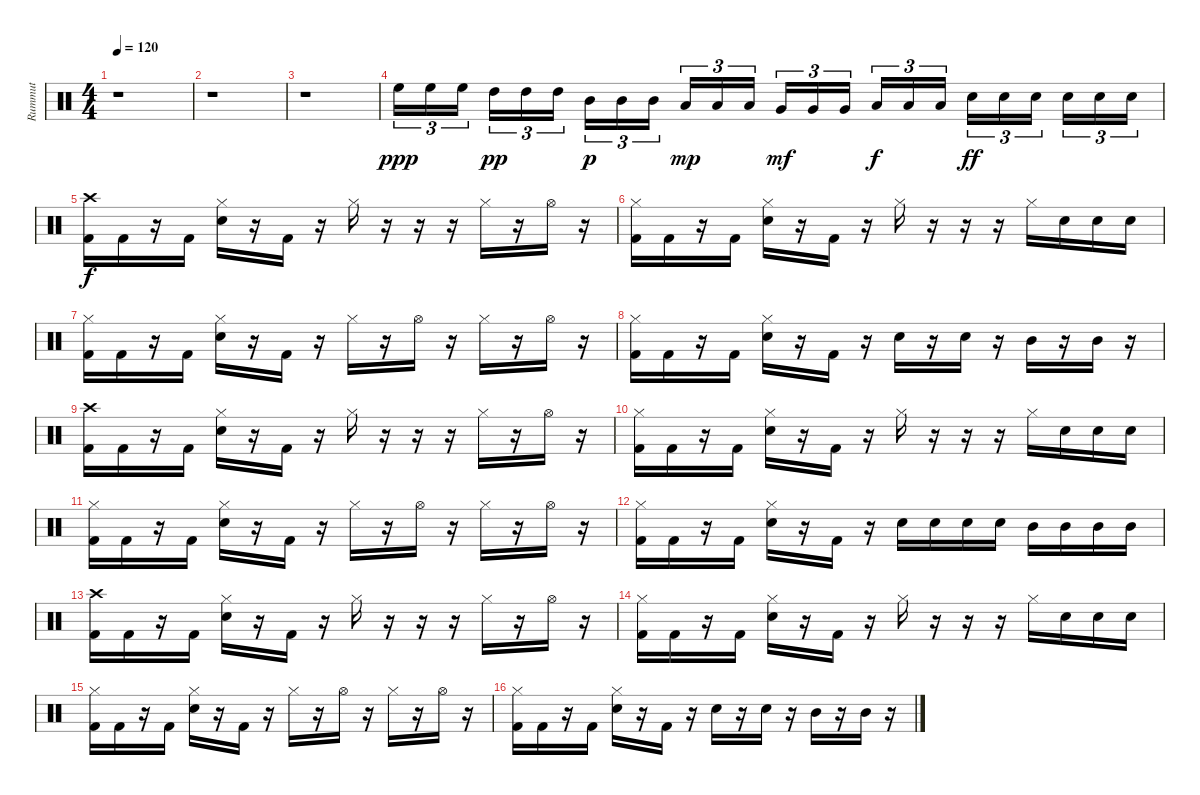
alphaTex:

\track ("Rummut" "Rummut") {instrument percussion}
\staff {score}
\articulation defaults
\ts (4 4)
\tempo 120
\clef neutral
\ks c
r.1{dy f} |
r.1 |
r.1 |
"High Floor Tom (hit)".16{tu (3 2) dy ppp} "High Floor Tom (hit)".16{tu (3 2)} "High Floor Tom (hit)".16{tu (3 2)} "High Tom (hit)".16{tu (3 2) dy pp} "High Tom (hit)".16{tu (3 2)} "High Tom (hit)".16{tu (3 2)} "Mid Tom (hit)".16{tu (3 2) dy p} "Mid Tom (hit)".16{tu (3 2)} "Mid Tom (hit)".16{tu (3 2)} "Low Tom (hit)".16{tu (3 2) dy mp} "Low Tom (hit)".16{tu (3 2)} "Low Tom (hit)".16{tu (3 2)} "Very Low Tom (hit)".16{tu (3 2) dy mf} "Very Low Tom (hit)".16{tu (3 2)} "Very Low Tom (hit)".16{tu (3 2)} "Low Floor Tom (hit)".16{tu (3 2) dy f} "Low Floor Tom (hit)".16{tu (3 2)} "Low Floor Tom (hit)".16{tu (3 2)} "Snare (hit) 2".16{tu (3 2) dy ff} "Snare (hit) 2".16{tu (3 2)} "Snare (hit) 2".16{tu (3 2)} "Snare (hit) 2".16{tu (3 2)} "Snare (hit) 2".16{tu (3 2)} "Snare (hit) 2".16{tu (3 2)} |
("Crash high (hit)" "Kick (hit) 2").16{dy f} "Kick (hit) 2".16 r.16 "Kick (hit) 2".16 ("Hi-Hat (closed)" "Snare (hit) 2").16 r.16 "Kick (hit) 2".16 r.16 "Hi-Hat (closed)".16 r.16 r.16 r.16 "Hi-Hat (closed)".16 r.16 "Hi-Hat (open)".16 r.16 |
("Hi-Hat (closed)" "Kick (hit) 2").16 "Kick (hit) 2".16 r.16 "Kick (hit) 2".16 ("Hi-Hat (closed)" "Snare (hit) 2").16 r.16 "Kick (hit) 2".16 r.16 "Hi-Hat (closed)".16 r.16 r.16 r.16 "Hi-Hat (closed)".16 "Snare (hit) 2".16 "Snare (hit) 2".16 "Snare (hit) 2".16 |
("Hi-Hat (closed)" "Kick (hit) 2").16 "Kick (hit) 2".16 r.16 "Kick (hit) 2".16 ("Hi-Hat (closed)" "Snare (hit) 2").16 r.16 "Kick (hit) 2".16 r.16 "Hi-Hat (closed)".16 r.16 "Hi-Hat (open)".16 r.16 "Hi-Hat (closed)".16 r.16 "Hi-Hat (open)".16 r.16 |
("Hi-Hat (closed)" "Kick (hit) 2").16 "Kick (hit) 2".16 r.16 "Kick (hit) 2".16 ("Hi-Hat (closed)" "Snare (hit) 2").16 r.16 "Kick (hit) 2".16 r.16 "Snare (hit) 2".16 r.16 "Snare (hit) 2".16 r.16 "Mid Tom (hit)".16 r.16 "Mid Tom (hit)".16 r.16 |
("Crash high (hit)" "Kick (hit) 2").16 "Kick (hit) 2".16 r.16 "Kick (hit) 2".16 ("Hi-Hat (closed)" "Snare (hit) 2").16 r.16 "Kick (hit) 2".16 r.16 "Hi-Hat (closed)".16 r.16 r.16 r.16 "Hi-Hat (closed)".16 r.16 "Hi-Hat (open)".16 r.16 |
("Hi-Hat (closed)" "Kick (hit) 2").16 "Kick (hit) 2".16 r.16 "Kick (hit) 2".16 ("Hi-Hat (closed)" "Snare (hit) 2").16 r.16 "Kick (hit) 2".16 r.16 "Hi-Hat (closed)".16 r.16 r.16 r.16 "Hi-Hat (closed)".16 "Snare (hit) 2".16 "Snare (hit) 2".16 "Snare (hit) 2".16 |
("Hi-Hat (closed)" "Kick (hit) 2").16 "Kick (hit) 2".16 r.16 "Kick (hit) 2".16 ("Hi-Hat (closed)" "Snare (hit) 2").16 r.16 "Kick (hit) 2".16 r.16 "Hi-Hat (closed)".16 r.16 "Hi-Hat (open)".16 r.16 "Hi-Hat (closed)".16 r.16 "Hi-Hat (open)".16 r.16 |
("Hi-Hat (closed)" "Kick (hit) 2").16 "Kick (hit) 2".16 r.16 "Kick (hit) 2".16 ("Hi-Hat (closed)" "Snare (hit) 2").16 r.16 "Kick (hit) 2".16 r.16 "Snare (hit) 2".16 "Snare (hit) 2".16 "Snare (hit) 2".16 "Snare (hit) 2".16 "Mid Tom (hit)".16 "Mid Tom (hit)".16 "Mid Tom (hit)".16 "Mid Tom (hit)".16 |
("Crash high (hit)" "Kick (hit) 2").16 "Kick (hit) 2".16 r.16 "Kick (hit) 2".16 ("Hi-Hat (closed)" "Snare (hit) 2").16 r.16 "Kick (hit) 2".16 r.16 "Hi-Hat (closed)".16 r.16 r.16 r.16 "Hi-Hat (closed)".16 r.16 "Hi-Hat (open)".16 r.16 |
("Hi-Hat (closed)" "Kick (hit) 2").16 "Kick (hit) 2".16 r.16 "Kick (hit) 2".16 ("Hi-Hat (closed)" "Snare (hit) 2").16 r.16 "Kick (hit) 2".16 r.16 "Hi-Hat (closed)".16 r.16 r.16 r.16 "Hi-Hat (closed)".16 "Snare (hit) 2".16 "Snare (hit) 2".16 "Snare (hit) 2".16 |
("Hi-Hat (closed)" "Kick (hit) 2").16 "Kick (hit) 2".16 r.16 "Kick (hit) 2".16 ("Hi-Hat (closed)" "Snare (hit) 2").16 r.16 "Kick (hit) 2".16 r.16 "Hi-Hat (closed)".16 r.16 "Hi-Hat (open)".16 r.16 "Hi-Hat (closed)".16 r.16 "Hi-Hat (open)".16 r.16 |
("Hi-Hat (closed)" "Kick (hit) 2").16 "Kick (hit) 2".16 r.16 "Kick (hit) 2".16 ("Hi-Hat (closed)" "Snare (hit) 2").16 r.16 "Kick (hit) 2".16 r.16 "Snare (hit) 2".16 r.16 "Snare (hit) 2".16 r.16 "Mid Tom (hit)".16 r.16 "Mid Tom (hit)".16 r.16
